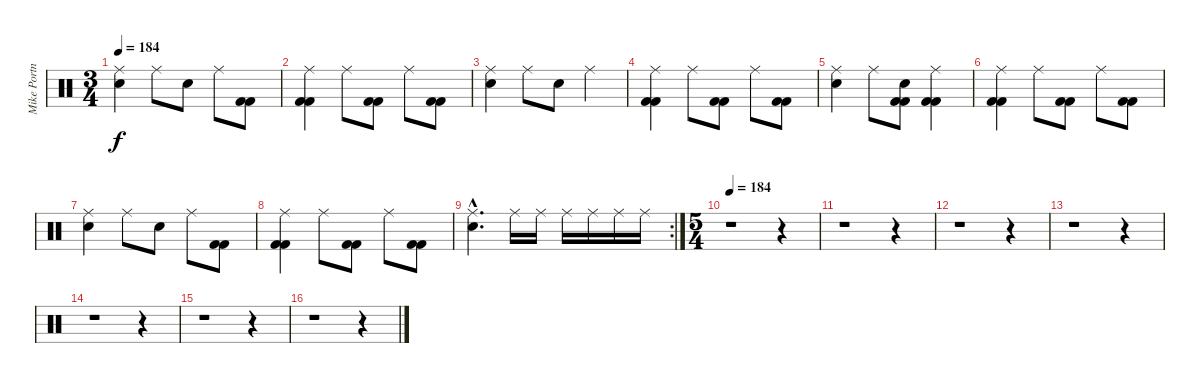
\track ("Mike Portnoy - Drum" "Mike Portn") {instrument percussion}
\staff {score}
\articulation defaults
\ts (3 4)
\tempo 184
\clef neutral
\ks c
("Ride (middle)" "Snare (hit) 2").4{dy f} "Ride (middle)".8 "Snare (hit) 2".8 "Ride (middle)".8 ("Kick (hit) 2" "Kick (hit) 2").8 |
("Ride (middle)" "Kick (hit) 2" "Kick (hit) 2").4 "Ride (middle)".8 ("Kick (hit) 2" "Kick (hit) 2").8 "Ride (middle)".8 ("Kick (hit) 2" "Kick (hit) 2").8 |
("Ride (middle)" "Snare (hit) 2").4 "Ride (middle)".8 "Snare (hit) 2".8 "Ride (middle)".4 |
("Ride (middle)" "Kick (hit) 2" "Kick (hit) 2").4 "Ride (middle)".8 ("Kick (hit) 2" "Kick (hit) 2").8 "Ride (middle)".8 ("Kick (hit) 2" "Kick (hit) 2").8 |
("Ride (middle)" "Snare (hit) 2").4 "Ride (middle)".8 ("Snare (hit) 2" "Kick (hit) 2" "Kick (hit) 2").8 ("Ride (middle)" "Kick (hit) 2" "Kick (hit) 2").4 |
("Ride (middle)" "Kick (hit) 2" "Kick (hit) 2").4 "Ride (middle)".8 ("Kick (hit) 2" "Kick (hit) 2").8 "Ride (middle)".8 ("Kick (hit) 2" "Kick (hit) 2").8 |
("Ride (middle)" "Snare (hit) 2").4 "Ride (middle)".8 "Snare (hit) 2".8 "Ride (middle)".8 ("Kick (hit) 2" "Kick (hit) 2").8 |
("Ride (middle)" "Kick (hit) 2" "Kick (hit) 2").4 "Ride (middle)".8 ("Kick (hit) 2" "Kick (hit) 2").8 "Ride (middle)".8 ("Kick (hit) 2" "Kick (hit) 2").8 |
\rc 2
("Ride (middle)"{hac} "Snare (hit) 2"{hac}).4{d} "Ride (middle)".16 "Ride (middle)".16 "Ride (middle)".16 "Ride (middle)".16 "Ride (middle)".16 "Ride (middle)".16 |
\ts (5 4)
\tempo 184
r.1 r.4 |
r.1 r.4 |
r.1 r.4 |
r.1 r.4 |
r.1 r.4 |
r.1 r.4 |
r.1 r.4
